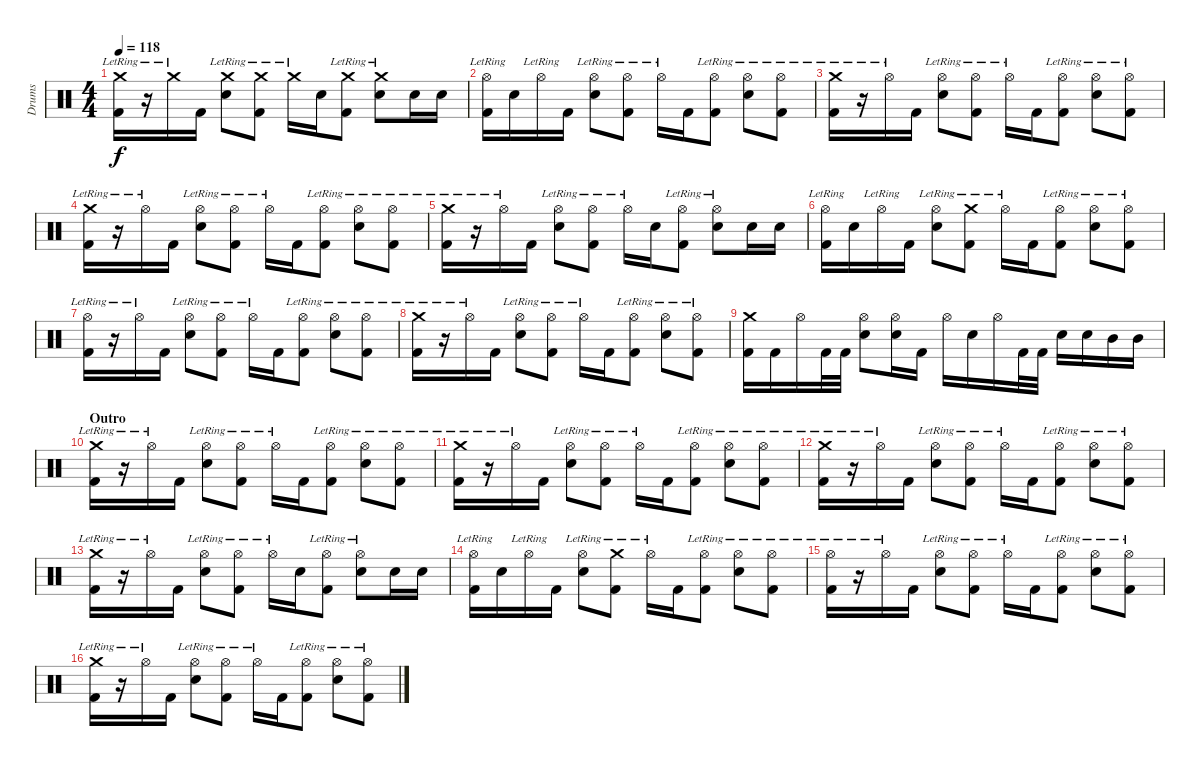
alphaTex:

\track ("Drums" "Drums") {instrument percussion}
\staff {score}
\articulation defaults
\ts (4 4)
\tempo 118
\clef neutral
\ks c
("Crash medium (hit)"{lr} "Kick (hit) 2").16{dy f} r.16 "Crash medium (hit)"{lr}.16 "Kick (hit) 2".16 ("Crash medium (hit)"{lr} "Electric Snare (hit)").8 ("Crash medium (hit)"{lr} "Kick (hit) 2").8 "Crash medium (hit)"{lr}.16 "Electric Snare (hit)".16 ("Crash medium (hit)"{lr} "Kick (hit) 2").8 ("Crash medium (hit)"{lr} "Electric Snare (hit)").8 "Electric Snare (hit)".16 "Electric Snare (hit)".16 |
("Hi-Hat (open)"{lr} "Kick (hit) 2").16 "Electric Snare (hit)".16 "Hi-Hat (open)"{lr}.16 "Kick (hit) 2".16 ("Hi-Hat (open)"{lr} "Electric Snare (hit)").8 ("Hi-Hat (open)"{lr} "Kick (hit) 2").8 "Hi-Hat (open)"{lr}.16 "Kick (hit) 2".16 ("Hi-Hat (open)"{lr} "Kick (hit) 2").8 ("Hi-Hat (open)"{lr} "Electric Snare (hit)").8 ("Hi-Hat (open)"{lr} "Kick (hit) 2").8 |
("Crash medium (hit)"{lr} "Kick (hit) 2").16 r.16 "Hi-Hat (open)"{lr}.16 "Kick (hit) 2".16 ("Hi-Hat (open)"{lr} "Electric Snare (hit)").8 ("Hi-Hat (open)"{lr} "Kick (hit) 2").8 "Hi-Hat (open)"{lr}.16 "Kick (hit) 2".16 ("Hi-Hat (open)"{lr} "Kick (hit) 2").8 ("Hi-Hat (open)"{lr} "Electric Snare (hit)").8 ("Hi-Hat (open)"{lr} "Kick (hit) 2").8 |
("Crash medium (hit)"{lr} "Kick (hit) 2").16 r.16 "Hi-Hat (open)"{lr}.16 "Kick (hit) 2".16 ("Hi-Hat (open)"{lr} "Electric Snare (hit)").8 ("Hi-Hat (open)"{lr} "Kick (hit) 2").8 "Hi-Hat (open)"{lr}.16 "Kick (hit) 2".16 ("Hi-Hat (open)"{lr} "Kick (hit) 2").8 ("Hi-Hat (open)"{lr} "Electric Snare (hit)").8 ("Hi-Hat (open)"{lr} "Kick (hit) 2").8 |
("Crash medium (hit)"{lr} "Kick (hit) 2").16 r.16 "Hi-Hat (open)"{lr}.16 "Kick (hit) 2".16 ("Hi-Hat (open)"{lr} "Electric Snare (hit)").8 ("Hi-Hat (open)"{lr} "Kick (hit) 2").8 "Hi-Hat (open)"{lr}.16 "Electric Snare (hit)".16 ("Hi-Hat (open)"{lr} "Kick (hit) 2").8 ("Hi-Hat (open)"{lr} "Electric Snare (hit)").8 "Electric Snare (hit)".16 "Electric Snare (hit)".16 |
("Hi-Hat (open)"{lr} "Kick (hit) 2").16 "Electric Snare (hit)".16 "Hi-Hat (open)"{lr}.16 "Kick (hit) 2".16 ("Hi-Hat (open)"{lr} "Electric Snare (hit)").8 ("Crash medium (hit)"{lr} "Kick (hit) 2").8 "Hi-Hat (open)"{lr}.16 "Kick (hit) 2".16 ("Hi-Hat (open)"{lr} "Kick (hit) 2").8 ("Hi-Hat (open)"{lr} "Electric Snare (hit)").8 ("Hi-Hat (open)"{lr} "Kick (hit) 2").8 |
("Hi-Hat (open)"{lr} "Kick (hit) 2").16 r.16 "Hi-Hat (open)"{lr}.16 "Kick (hit) 2".16 ("Hi-Hat (open)"{lr} "Electric Snare (hit)").8 ("Hi-Hat (open)"{lr} "Kick (hit) 2").8 "Hi-Hat (open)"{lr}.16 "Kick (hit) 2".16 ("Hi-Hat (open)"{lr} "Kick (hit) 2").8 ("Hi-Hat (open)"{lr} "Electric Snare (hit)").8 ("Hi-Hat (open)"{lr} "Kick (hit) 2").8 |
("Crash medium (hit)"{lr} "Kick (hit) 2").16 r.16 "Hi-Hat (open)"{lr}.16 "Kick (hit) 2".16 ("Hi-Hat (open)"{lr} "Electric Snare (hit)").8 ("Hi-Hat (open)"{lr} "Kick (hit) 2").8 "Hi-Hat (open)"{lr}.16 "Kick (hit) 2".16 ("Hi-Hat (open)"{lr} "Kick (hit) 2").8 ("Hi-Hat (open)"{lr} "Electric Snare (hit)").8 ("Hi-Hat (open)"{lr} "Kick (hit) 2").8 |
("Crash medium (hit)" "Kick (hit) 2").16 "Kick (hit) 2".16 "Hi-Hat (open)".16 "Kick (hit) 2".32 "Kick (hit) 2".32 ("Hi-Hat (open)" "Electric Snare (hit)").8 ("Hi-Hat (open)" "Electric Snare (hit)").16 "Kick (hit) 2".16 "Hi-Hat (open)".16 "Electric Snare (hit)".16 "Hi-Hat (open)".16 "Kick (hit) 2".32 "Kick (hit) 2".32 "Electric Snare (hit)".16 "Electric Snare (hit)".16 "Mid Tom (hit)".16 "Mid Tom (hit)".16 |
\section ("" "Outro")
("Crash medium (hit)"{lr} "Kick (hit) 2").16 r.16 "Hi-Hat (open)"{lr}.16 "Kick (hit) 2".16 ("Hi-Hat (open)"{lr} "Electric Snare (hit)").8 ("Hi-Hat (open)"{lr} "Kick (hit) 2").8 "Hi-Hat (open)"{lr}.16 "Kick (hit) 2".16 ("Hi-Hat (open)"{lr} "Kick (hit) 2").8 ("Hi-Hat (open)"{lr} "Electric Snare (hit)").8 ("Hi-Hat (open)"{lr} "Kick (hit) 2").8 |
("Crash medium (hit)"{lr} "Kick (hit) 2").16 r.16 "Hi-Hat (open)"{lr}.16 "Kick (hit) 2".16 ("Hi-Hat (open)"{lr} "Electric Snare (hit)").8 ("Hi-Hat (open)"{lr} "Kick (hit) 2").8 "Hi-Hat (open)"{lr}.16 "Kick (hit) 2".16 ("Hi-Hat (open)"{lr} "Kick (hit) 2").8 ("Hi-Hat (open)"{lr} "Electric Snare (hit)").8 ("Hi-Hat (open)"{lr} "Kick (hit) 2").8 |
("Crash medium (hit)"{lr} "Kick (hit) 2").16 r.16 "Hi-Hat (open)"{lr}.16 "Kick (hit) 2".16 ("Hi-Hat (open)"{lr} "Electric Snare (hit)").8 ("Hi-Hat (open)"{lr} "Kick (hit) 2").8 "Hi-Hat (open)"{lr}.16 "Kick (hit) 2".16 ("Hi-Hat (open)"{lr} "Kick (hit) 2").8 ("Hi-Hat (open)"{lr} "Electric Snare (hit)").8 ("Hi-Hat (open)"{lr} "Kick (hit) 2").8 |
("Crash medium (hit)"{lr} "Kick (hit) 2").16 r.16 "Hi-Hat (open)"{lr}.16 "Kick (hit) 2".16 ("Hi-Hat (open)"{lr} "Electric Snare (hit)").8 ("Hi-Hat (open)"{lr} "Kick (hit) 2").8 "Hi-Hat (open)"{lr}.16 "Electric Snare (hit)".16 ("Hi-Hat (open)"{lr} "Kick (hit) 2").8 ("Hi-Hat (open)"{lr} "Electric Snare (hit)").8 "Electric Snare (hit)".16 "Electric Snare (hit)".16 |
("Hi-Hat (open)"{lr} "Kick (hit) 2").16 "Electric Snare (hit)".16 "Hi-Hat (open)"{lr}.16 "Kick (hit) 2".16 ("Hi-Hat (open)"{lr} "Electric Snare (hit)").8 ("Crash medium (hit)"{lr} "Kick (hit) 2").8 "Hi-Hat (open)"{lr}.16 "Kick (hit) 2".16 ("Hi-Hat (open)"{lr} "Kick (hit) 2").8 ("Hi-Hat (open)"{lr} "Electric Snare (hit)").8 ("Hi-Hat (open)"{lr} "Kick (hit) 2").8 |
("Hi-Hat (open)"{lr} "Kick (hit) 2").16 r.16 "Hi-Hat (open)"{lr}.16 "Kick (hit) 2".16 ("Hi-Hat (open)"{lr} "Electric Snare (hit)").8 ("Hi-Hat (open)"{lr} "Kick (hit) 2").8 "Hi-Hat (open)"{lr}.16 "Kick (hit) 2".16 ("Hi-Hat (open)"{lr} "Kick (hit) 2").8 ("Hi-Hat (open)"{lr} "Electric Snare (hit)").8 ("Hi-Hat (open)"{lr} "Kick (hit) 2").8 |
("Crash medium (hit)"{lr} "Kick (hit) 2").16 r.16 "Hi-Hat (open)"{lr}.16 "Kick (hit) 2".16 ("Hi-Hat (open)"{lr} "Electric Snare (hit)").8 ("Hi-Hat (open)"{lr} "Kick (hit) 2").8 "Hi-Hat (open)"{lr}.16 "Kick (hit) 2".16 ("Hi-Hat (open)"{lr} "Kick (hit) 2").8 ("Hi-Hat (open)"{lr} "Electric Snare (hit)").8 ("Hi-Hat (open)"{lr} "Kick (hit) 2").8
